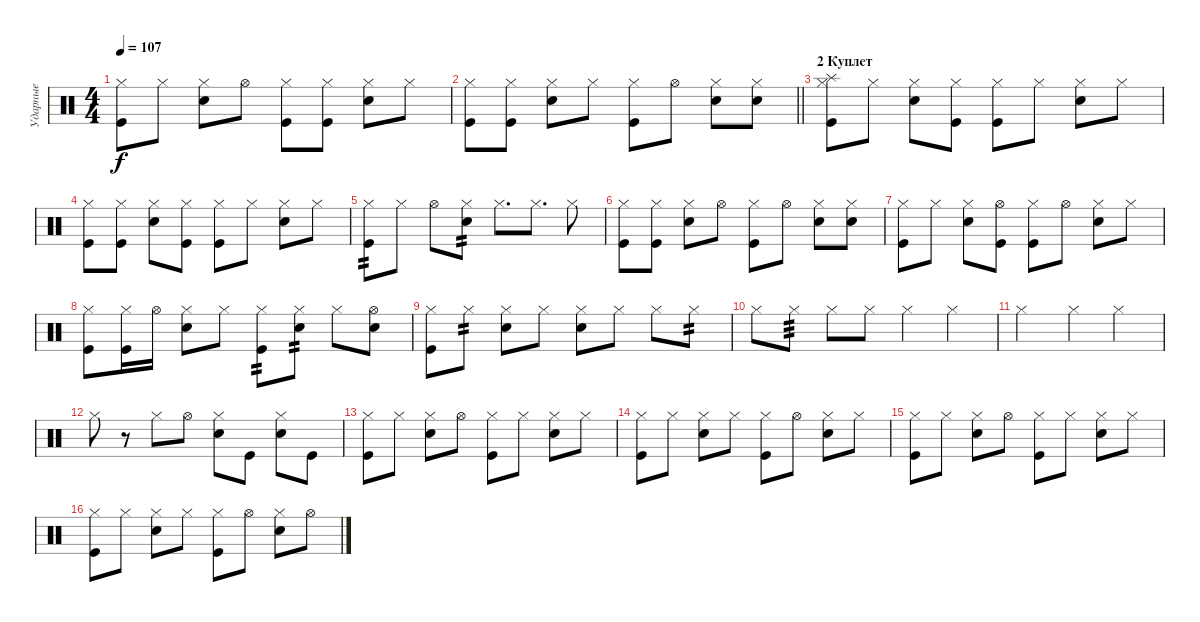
\track ("Ударные" "Ударные") {instrument percussion}
\staff {score}
\articulation defaults
\ts (4 4)
\tempo 107
\clef neutral
\ks c
("Hi-Hat (closed)" "Kick (hit)").8{dy f} "Hi-Hat (closed)".8 ("Hi-Hat (closed)" "Electric Snare (hit)").8 "Hi-Hat (open)".8 ("Hi-Hat (closed)" "Kick (hit)").8 ("Hi-Hat (closed)" "Kick (hit)").8 ("Hi-Hat (closed)" "Electric Snare (hit)").8 "Hi-Hat (closed)".8 |
\barLineRight lightlight
("Hi-Hat (closed)" "Kick (hit)").8 ("Hi-Hat (closed)" "Kick (hit)").8 ("Hi-Hat (closed)" "Electric Snare (hit)").8 "Hi-Hat (closed)".8 ("Hi-Hat (closed)" "Kick (hit)").8 "Hi-Hat (open)".8 ("Hi-Hat (closed)" "Electric Snare (hit)").8 ("Hi-Hat (closed)" "Electric Snare (hit)").8 |
\section ("" "2 Куплет")
("Hi-Hat (closed)" "Splash (hit)" "Kick (hit)").8 "Hi-Hat (closed)".8 ("Hi-Hat (closed)" "Electric Snare (hit)").8 ("Hi-Hat (closed)" "Kick (hit)").8 ("Hi-Hat (closed)" "Kick (hit)").8 "Hi-Hat (closed)".8 ("Hi-Hat (closed)" "Electric Snare (hit)").8 "Hi-Hat (closed)".8 |
("Hi-Hat (closed)" "Kick (hit)").8 ("Hi-Hat (closed)" "Kick (hit)").8 ("Hi-Hat (closed)" "Electric Snare (hit)").8 ("Hi-Hat (closed)" "Kick (hit)").8 ("Hi-Hat (closed)" "Kick (hit)").8 "Hi-Hat (closed)".8 ("Hi-Hat (closed)" "Electric Snare (hit)").8 "Hi-Hat (closed)".8 |
("Hi-Hat (closed)" "Kick (hit)").8{tp 2} "Hi-Hat (closed)".8 "Hi-Hat (open)".8 ("Hi-Hat (closed)" "Electric Snare (hit)").8{tp 2} "Hi-Hat (closed)".8{d} "Hi-Hat (closed)".8{d} "Hi-Hat (closed)".8 |
("Hi-Hat (closed)" "Kick (hit)").8 ("Hi-Hat (closed)" "Kick (hit)").8 ("Hi-Hat (closed)" "Electric Snare (hit)").8 "Hi-Hat (open)".8 ("Hi-Hat (closed)" "Kick (hit)").8 "Hi-Hat (open)".8 ("Hi-Hat (closed)" "Electric Snare (hit)").8 ("Hi-Hat (closed)" "Electric Snare (hit)").8 |
("Hi-Hat (closed)" "Kick (hit)").8 "Hi-Hat (closed)".8 ("Hi-Hat (closed)" "Electric Snare (hit)").8 ("Hi-Hat (open)" "Kick (hit)").8 ("Hi-Hat (closed)" "Kick (hit)").8 "Hi-Hat (open)".8 ("Hi-Hat (closed)" "Electric Snare (hit)").8 "Hi-Hat (closed)".8 |
("Hi-Hat (closed)" "Kick (hit)").8 ("Hi-Hat (closed)" "Kick (hit)").16 "Hi-Hat (open)".16 ("Hi-Hat (closed)" "Electric Snare (hit)").8 "Hi-Hat (closed)".8 ("Hi-Hat (closed)" "Kick (hit)").8{tp 2} ("Hi-Hat (closed)" "Electric Snare (hit)").8{tp 2} "Hi-Hat (closed)".8 ("Hi-Hat (open)" "Electric Snare (hit)").8 |
("Hi-Hat (closed)" "Kick (hit)").8 "Hi-Hat (closed)".8{tp 2} ("Hi-Hat (closed)" "Electric Snare (hit)").8 "Hi-Hat (closed)".8 ("Hi-Hat (closed)" "Electric Snare (hit)").8 "Hi-Hat (closed)".8 "Hi-Hat (closed)".8 "Hi-Hat (closed)".8{tp 2} |
"Hi-Hat (closed)".8 "Hi-Hat (closed)".8{tp 3} "Hi-Hat (closed)".8 "Hi-Hat (closed)".8 "Hi-Hat (closed)".4 "Hi-Hat (closed)".4 |
"Hi-Hat (closed)".2 "Hi-Hat (closed)".4 "Hi-Hat (closed)".4 |
"Hi-Hat (closed)".8 r.8 "Hi-Hat (closed)".8 "Hi-Hat (open)".8 ("Hi-Hat (closed)" "Electric Snare (hit)").8 "Kick (hit)".8 ("Hi-Hat (closed)" "Electric Snare (hit)").8 "Kick (hit)".8 |
("Hi-Hat (closed)" "Kick (hit)").8 "Hi-Hat (closed)".8 ("Hi-Hat (closed)" "Electric Snare (hit)").8 "Hi-Hat (open)".8 ("Hi-Hat (closed)" "Kick (hit)").8 "Hi-Hat (closed)".8 ("Hi-Hat (closed)" "Electric Snare (hit)").8 "Hi-Hat (closed)".8 |
("Hi-Hat (closed)" "Kick (hit)").8 "Hi-Hat (closed)".8 ("Hi-Hat (closed)" "Electric Snare (hit)").8 "Hi-Hat (closed)".8 ("Hi-Hat (closed)" "Kick (hit)").8 "Hi-Hat (open)".8 ("Hi-Hat (closed)" "Electric Snare (hit)").8 "Hi-Hat (closed)".8 |
("Hi-Hat (closed)" "Kick (hit)").8 "Hi-Hat (closed)".8 ("Hi-Hat (closed)" "Electric Snare (hit)").8 "Hi-Hat (open)".8 ("Hi-Hat (closed)" "Kick (hit)").8 "Hi-Hat (closed)".8 ("Hi-Hat (closed)" "Electric Snare (hit)").8 "Hi-Hat (closed)".8 |
("Hi-Hat (closed)" "Kick (hit)").8 "Hi-Hat (closed)".8 ("Hi-Hat (closed)" "Electric Snare (hit)").8 "Hi-Hat (closed)".8 ("Hi-Hat (closed)" "Kick (hit)").8 "Hi-Hat (open)".8 ("Hi-Hat (closed)" "Electric Snare (hit)").8 "Hi-Hat (open)".8
